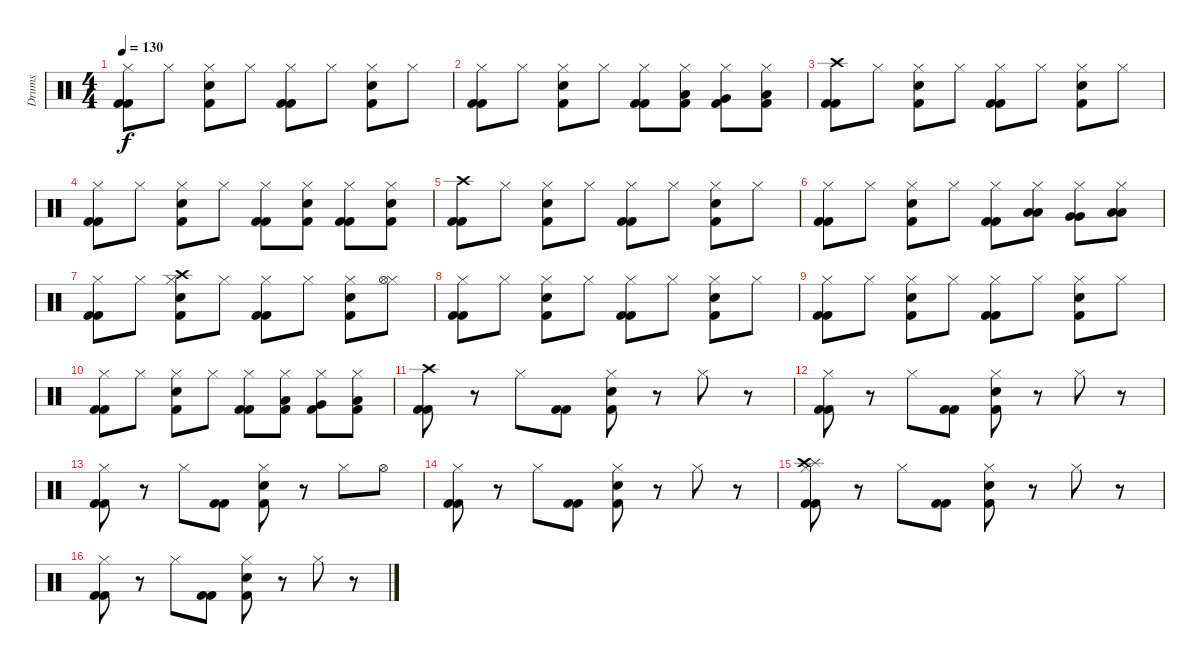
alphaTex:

\track ("Drums" "Drums") {instrument percussion}
\staff {score}
\articulation defaults
\ts (4 4)
\tempo 130
\clef neutral
\ks c
("Hi-Hat (closed)" "Kick (hit) 2" "Kick (hit) 2").8{dy f} "Hi-Hat (closed)".8 ("Hi-Hat (closed)" "Snare (hit) 2" "Kick (hit) 2").8 "Hi-Hat (closed)".8 ("Hi-Hat (closed)" "Kick (hit) 2" "Kick (hit) 2").8 "Hi-Hat (closed)".8 ("Hi-Hat (closed)" "Kick (hit) 2" "Snare (hit) 2").8 "Hi-Hat (closed)".8 |
("Hi-Hat (closed)" "Kick (hit) 2" "Kick (hit) 2").8 "Hi-Hat (closed)".8 ("Hi-Hat (closed)" "Snare (hit) 2" "Kick (hit) 2").8 "Hi-Hat (closed)".8 ("Hi-Hat (closed)" "Kick (hit) 2" "Kick (hit) 2").8 ("Hi-Hat (closed)" "Kick (hit) 2" "Low Tom (hit)").8 ("Hi-Hat (closed)" "Kick (hit) 2" "Very Low Tom (hit)").8 ("Hi-Hat (closed)" "Kick (hit) 2" "Low Floor Tom (hit)").8 |
("Crash high (hit)" "Kick (hit) 2" "Kick (hit) 2").8 "Hi-Hat (closed)".8 ("Hi-Hat (closed)" "Snare (hit) 2" "Kick (hit) 2").8 "Hi-Hat (closed)".8 ("Hi-Hat (closed)" "Kick (hit) 2" "Kick (hit) 2").8 "Hi-Hat (closed)".8 ("Hi-Hat (closed)" "Kick (hit) 2" "Snare (hit) 2").8 "Hi-Hat (closed)".8 |
("Hi-Hat (closed)" "Kick (hit) 2" "Kick (hit) 2").8 "Hi-Hat (closed)".8 ("Hi-Hat (closed)" "Snare (hit) 2" "Kick (hit) 2").8 "Hi-Hat (closed)".8 ("Hi-Hat (closed)" "Kick (hit) 2" "Kick (hit) 2").8 ("Hi-Hat (closed)" "Kick (hit) 2" "Snare (hit) 2").8 ("Hi-Hat (closed)" "Kick (hit) 2" "Kick (hit) 2").8 ("Hi-Hat (closed)" "Kick (hit) 2" "Snare (hit) 2").8 |
("Crash high (hit)" "Kick (hit) 2" "Kick (hit) 2").8 "Hi-Hat (closed)".8 ("Hi-Hat (closed)" "Snare (hit) 2" "Kick (hit) 2").8 "Hi-Hat (closed)".8 ("Hi-Hat (closed)" "Kick (hit) 2" "Kick (hit) 2").8 "Hi-Hat (closed)".8 ("Hi-Hat (closed)" "Kick (hit) 2" "Snare (hit) 2").8 "Hi-Hat (closed)".8 |
("Hi-Hat (closed)" "Kick (hit) 2" "Kick (hit) 2").8 "Hi-Hat (closed)".8 ("Hi-Hat (closed)" "Snare (hit) 2" "Kick (hit) 2").8 "Hi-Hat (closed)".8 ("Hi-Hat (closed)" "Kick (hit) 2" "Kick (hit) 2").8 ("Hi-Hat (closed)" "Low Tom (hit)" "Low Tom (hit)").8 ("Hi-Hat (closed)" "Very Low Tom (hit)" "Very Low Tom (hit)").8 ("Hi-Hat (closed)" "Low Floor Tom (hit)" "Low Floor Tom (hit)").8 |
("Hi-Hat (closed)" "Kick (hit) 2" "Kick (hit) 2").8 "Hi-Hat (closed)".8 ("Hi-Hat (closed)" "Snare (hit) 2" "Kick (hit) 2" "Crash high (hit)").8 "Hi-Hat (closed)".8 ("Hi-Hat (closed)" "Kick (hit) 2" "Kick (hit) 2").8 "Hi-Hat (closed)".8 ("Hi-Hat (closed)" "Kick (hit) 2" "Snare (hit) 2").8 ("Hi-Hat (closed)" "Hi-Hat (open)").8 |
("Hi-Hat (closed)" "Kick (hit) 2" "Kick (hit) 2").8 "Hi-Hat (closed)".8 ("Hi-Hat (closed)" "Snare (hit) 2" "Kick (hit) 2").8 "Hi-Hat (closed)".8 ("Hi-Hat (closed)" "Kick (hit) 2" "Kick (hit) 2").8 "Hi-Hat (closed)".8 ("Hi-Hat (closed)" "Kick (hit) 2" "Snare (hit) 2").8 "Hi-Hat (closed)".8 |
("Hi-Hat (closed)" "Kick (hit) 2" "Kick (hit) 2").8 "Hi-Hat (closed)".8 ("Hi-Hat (closed)" "Snare (hit) 2" "Kick (hit) 2").8 "Hi-Hat (closed)".8 ("Hi-Hat (closed)" "Kick (hit) 2" "Kick (hit) 2").8 "Hi-Hat (closed)".8 ("Hi-Hat (closed)" "Kick (hit) 2" "Snare (hit) 2").8 "Hi-Hat (closed)".8 |
("Hi-Hat (closed)" "Kick (hit) 2" "Kick (hit) 2").8 "Hi-Hat (closed)".8 ("Hi-Hat (closed)" "Snare (hit) 2" "Kick (hit) 2").8 "Hi-Hat (closed)".8 ("Hi-Hat (closed)" "Kick (hit) 2" "Kick (hit) 2").8 ("Hi-Hat (closed)" "Kick (hit) 2" "Low Tom (hit)").8 ("Hi-Hat (closed)" "Kick (hit) 2" "Very Low Tom (hit)").8 ("Hi-Hat (closed)" "Kick (hit) 2" "Low Floor Tom (hit)").8 |
("Crash high (hit)" "Kick (hit) 2" "Kick (hit) 2").8 r.8 "Hi-Hat (closed)".8 ("Kick (hit) 2" "Kick (hit) 2").8 ("Hi-Hat (closed)" "Snare (hit) 2" "Kick (hit) 2").8 r.8 "Hi-Hat (closed)".8 r.8 |
("Hi-Hat (closed)" "Kick (hit) 2" "Kick (hit) 2").8 r.8 "Hi-Hat (closed)".8 ("Kick (hit) 2" "Kick (hit) 2").8 ("Hi-Hat (closed)" "Kick (hit) 2" "Snare (hit) 2").8 r.8 "Hi-Hat (closed)".8 r.8 |
("Hi-Hat (closed)" "Kick (hit) 2" "Kick (hit) 2").8 r.8 "Hi-Hat (closed)".8 ("Kick (hit) 2" "Kick (hit) 2").8 ("Hi-Hat (closed)" "Kick (hit) 2" "Snare (hit) 2").8 r.8 "Hi-Hat (closed)".8 "Hi-Hat (open)".8 |
("Hi-Hat (closed)" "Kick (hit) 2" "Kick (hit) 2").8 r.8 "Hi-Hat (closed)".8 ("Kick (hit) 2" "Kick (hit) 2").8 ("Hi-Hat (closed)" "Kick (hit) 2" "Snare (hit) 2").8 r.8 "Hi-Hat (closed)".8 r.8 |
("Hi-Hat (closed)" "Kick (hit) 2" "Kick (hit) 2" "Splash (hit)" "Crash high (hit)").8 r.8 "Hi-Hat (closed)".8 ("Kick (hit) 2" "Kick (hit) 2").8 ("Hi-Hat (closed)" "Kick (hit) 2" "Snare (hit) 2").8 r.8 "Hi-Hat (closed)".8 r.8 |
("Hi-Hat (closed)" "Kick (hit) 2" "Kick (hit) 2").8 r.8 "Hi-Hat (closed)".8 ("Kick (hit) 2" "Kick (hit) 2").8 ("Hi-Hat (closed)" "Kick (hit) 2" "Snare (hit) 2").8 r.8 "Hi-Hat (closed)".8 r.8
